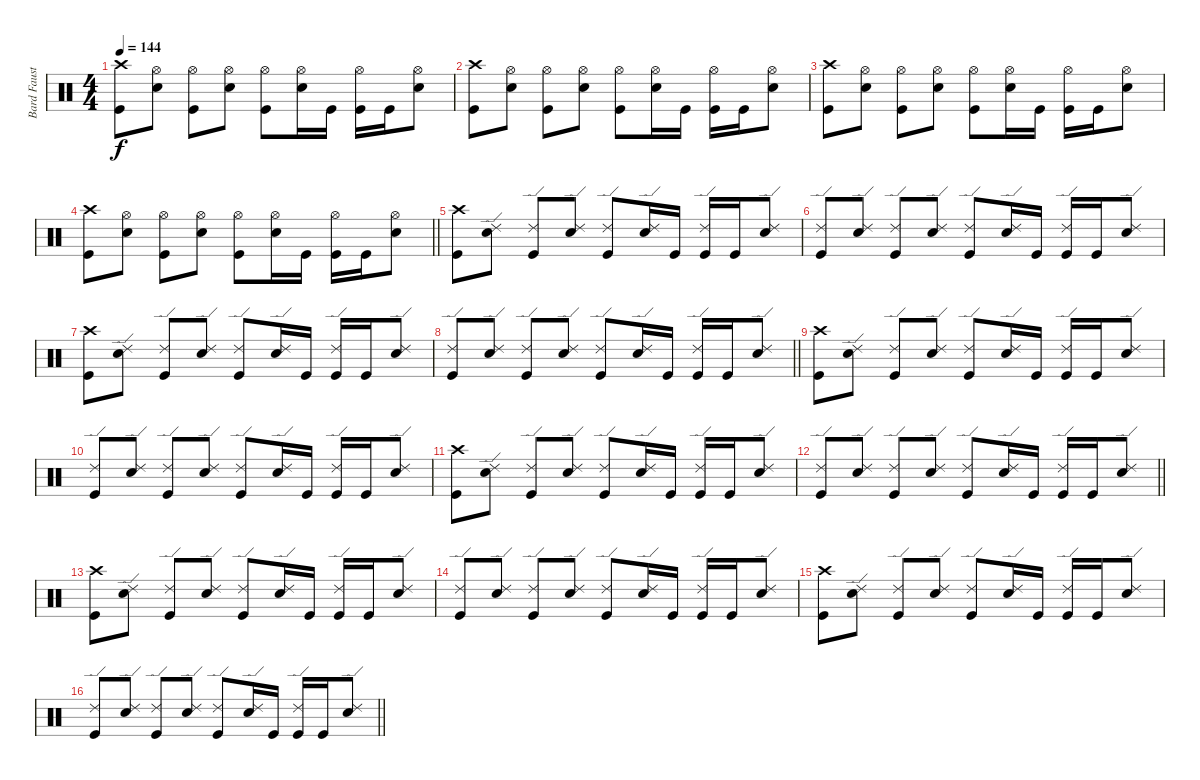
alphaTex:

\track ("Bard Faust" "Bard Faust") {instrument percussion}
\staff {score}
\articulation defaults
\ts (4 4)
\section ("" "")
\tempo 144
\clef neutral
\ks c
("Crash high (hit)" "Kick (hit)").8{dy f} ("Hi-Hat (open)" "Snare (hit) 2").8 ("Hi-Hat (open)" "Kick (hit)").8 ("Hi-Hat (open)" "Snare (hit) 2").8 ("Hi-Hat (open)" "Kick (hit)").8 ("Hi-Hat (open)" "Snare (hit) 2").16 "Kick (hit)".16 ("Hi-Hat (open)" "Kick (hit)").16 "Kick (hit)".16 ("Hi-Hat (open)" "Snare (hit) 2").8 |
("Crash high (hit)" "Kick (hit)").8 ("Hi-Hat (open)" "Snare (hit) 2").8 ("Hi-Hat (open)" "Kick (hit)").8 ("Hi-Hat (open)" "Snare (hit) 2").8 ("Hi-Hat (open)" "Kick (hit)").8 ("Hi-Hat (open)" "Snare (hit) 2").16 "Kick (hit)".16 ("Hi-Hat (open)" "Kick (hit)").16 "Kick (hit)".16 ("Hi-Hat (open)" "Snare (hit) 2").8 |
("Crash high (hit)" "Kick (hit)").8 ("Hi-Hat (open)" "Snare (hit) 2").8 ("Hi-Hat (open)" "Kick (hit)").8 ("Hi-Hat (open)" "Snare (hit) 2").8 ("Hi-Hat (open)" "Kick (hit)").8 ("Hi-Hat (open)" "Snare (hit) 2").16 "Kick (hit)".16 ("Hi-Hat (open)" "Kick (hit)").16 "Kick (hit)".16 ("Hi-Hat (open)" "Snare (hit) 2").8 |
\barLineRight lightlight
("Crash high (hit)" "Kick (hit)").8 ("Hi-Hat (open)" "Snare (hit) 2").8 ("Hi-Hat (open)" "Kick (hit)").8 ("Hi-Hat (open)" "Snare (hit) 2").8 ("Hi-Hat (open)" "Kick (hit)").8 ("Hi-Hat (open)" "Snare (hit) 2").16 "Kick (hit)".16 ("Hi-Hat (open)" "Kick (hit)").16 "Kick (hit)".16 ("Hi-Hat (open)" "Snare (hit) 2").8 |
\section ("" "")
("Crash high (hit)" "Kick (hit)").8 ("Ride (edge) 2" "Snare (hit) 2").8 ("Ride (edge) 2" "Kick (hit)").8 ("Ride (edge) 2" "Snare (hit) 2").8 ("Ride (edge) 2" "Kick (hit)").8 ("Ride (edge) 2" "Snare (hit) 2").16 "Kick (hit)".16 ("Ride (edge) 2" "Kick (hit)").16 "Kick (hit)".16 ("Ride (edge) 2" "Snare (hit) 2").8 |
("Ride (edge) 2" "Kick (hit)").8 ("Ride (edge) 2" "Snare (hit) 2").8 ("Ride (edge) 2" "Kick (hit)").8 ("Ride (edge) 2" "Snare (hit) 2").8 ("Ride (edge) 2" "Kick (hit)").8 ("Ride (edge) 2" "Snare (hit) 2").16 "Kick (hit)".16 ("Ride (edge) 2" "Kick (hit)").16 "Kick (hit)".16 ("Ride (edge) 2" "Snare (hit) 2").8 |
("Crash high (hit)" "Kick (hit)").8 ("Ride (edge) 2" "Snare (hit) 2").8 ("Ride (edge) 2" "Kick (hit)").8 ("Ride (edge) 2" "Snare (hit) 2").8 ("Ride (edge) 2" "Kick (hit)").8 ("Ride (edge) 2" "Snare (hit) 2").16 "Kick (hit)".16 ("Ride (edge) 2" "Kick (hit)").16 "Kick (hit)".16 ("Ride (edge) 2" "Snare (hit) 2").8 |
\barLineRight lightlight
("Ride (edge) 2" "Kick (hit)").8 ("Ride (edge) 2" "Snare (hit) 2").8 ("Ride (edge) 2" "Kick (hit)").8 ("Ride (edge) 2" "Snare (hit) 2").8 ("Ride (edge) 2" "Kick (hit)").8 ("Ride (edge) 2" "Snare (hit) 2").16 "Kick (hit)".16 ("Ride (edge) 2" "Kick (hit)").16 "Kick (hit)".16 ("Ride (edge) 2" "Snare (hit) 2").8 |
\section ("" "")
("Crash high (hit)" "Kick (hit)").8 ("Ride (edge) 2" "Snare (hit) 2").8 ("Ride (edge) 2" "Kick (hit)").8 ("Ride (edge) 2" "Snare (hit) 2").8 ("Ride (edge) 2" "Kick (hit)").8 ("Ride (edge) 2" "Snare (hit) 2").16 "Kick (hit)".16 ("Ride (edge) 2" "Kick (hit)").16 "Kick (hit)".16 ("Ride (edge) 2" "Snare (hit) 2").8 |
("Ride (edge) 2" "Kick (hit)").8 ("Ride (edge) 2" "Snare (hit) 2").8 ("Ride (edge) 2" "Kick (hit)").8 ("Ride (edge) 2" "Snare (hit) 2").8 ("Ride (edge) 2" "Kick (hit)").8 ("Ride (edge) 2" "Snare (hit) 2").16 "Kick (hit)".16 ("Ride (edge) 2" "Kick (hit)").16 "Kick (hit)".16 ("Ride (edge) 2" "Snare (hit) 2").8 |
("Crash high (hit)" "Kick (hit)").8 ("Ride (edge) 2" "Snare (hit) 2").8 ("Ride (edge) 2" "Kick (hit)").8 ("Ride (edge) 2" "Snare (hit) 2").8 ("Ride (edge) 2" "Kick (hit)").8 ("Ride (edge) 2" "Snare (hit) 2").16 "Kick (hit)".16 ("Ride (edge) 2" "Kick (hit)").16 "Kick (hit)".16 ("Ride (edge) 2" "Snare (hit) 2").8 |
\barLineRight lightlight
("Ride (edge) 2" "Kick (hit)").8 ("Ride (edge) 2" "Snare (hit) 2").8 ("Ride (edge) 2" "Kick (hit)").8 ("Ride (edge) 2" "Snare (hit) 2").8 ("Ride (edge) 2" "Kick (hit)").8 ("Ride (edge) 2" "Snare (hit) 2").16 "Kick (hit)".16 ("Ride (edge) 2" "Kick (hit)").16 "Kick (hit)".16 ("Ride (edge) 2" "Snare (hit) 2").8 |
\section ("" "")
("Crash high (hit)" "Kick (hit)").8 ("Ride (edge) 2" "Snare (hit) 2").8 ("Ride (edge) 2" "Kick (hit)").8 ("Ride (edge) 2" "Snare (hit) 2").8 ("Ride (edge) 2" "Kick (hit)").8 ("Ride (edge) 2" "Snare (hit) 2").16 "Kick (hit)".16 ("Ride (edge) 2" "Kick (hit)").16 "Kick (hit)".16 ("Ride (edge) 2" "Snare (hit) 2").8 |
("Ride (edge) 2" "Kick (hit)").8 ("Ride (edge) 2" "Snare (hit) 2").8 ("Ride (edge) 2" "Kick (hit)").8 ("Ride (edge) 2" "Snare (hit) 2").8 ("Ride (edge) 2" "Kick (hit)").8 ("Ride (edge) 2" "Snare (hit) 2").16 "Kick (hit)".16 ("Ride (edge) 2" "Kick (hit)").16 "Kick (hit)".16 ("Ride (edge) 2" "Snare (hit) 2").8 |
("Crash high (hit)" "Kick (hit)").8 ("Ride (edge) 2" "Snare (hit) 2").8 ("Ride (edge) 2" "Kick (hit)").8 ("Ride (edge) 2" "Snare (hit) 2").8 ("Ride (edge) 2" "Kick (hit)").8 ("Ride (edge) 2" "Snare (hit) 2").16 "Kick (hit)".16 ("Ride (edge) 2" "Kick (hit)").16 "Kick (hit)".16 ("Ride (edge) 2" "Snare (hit) 2").8 |
\barLineRight lightlight
("Ride (edge) 2" "Kick (hit)").8 ("Ride (edge) 2" "Snare (hit) 2").8 ("Ride (edge) 2" "Kick (hit)").8 ("Ride (edge) 2" "Snare (hit) 2").8 ("Ride (edge) 2" "Kick (hit)").8 ("Ride (edge) 2" "Snare (hit) 2").16 "Kick (hit)".16 ("Ride (edge) 2" "Kick (hit)").16 "Kick (hit)".16 ("Ride (edge) 2" "Snare (hit) 2").8
